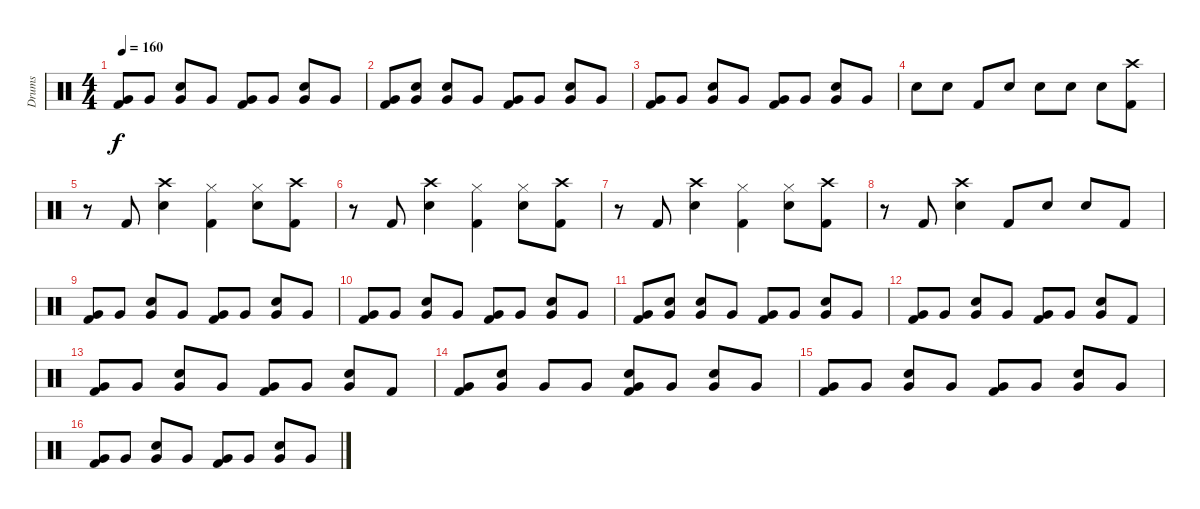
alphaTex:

\track ("Drums" "Drums") {instrument percussion}
\staff {score}
\articulation defaults
\ts (4 4)
\tempo 160
\clef neutral
\ks c
("Very Low Tom (hit)" "Kick (hit) 2").8{dy f} "Very Low Tom (hit)".8 ("Electric Snare (hit)" "Very Low Tom (hit)").8 "Very Low Tom (hit)".8 ("Very Low Tom (hit)" "Kick (hit) 2").8 "Very Low Tom (hit)".8 ("Electric Snare (hit)" "Very Low Tom (hit)").8 "Very Low Tom (hit)".8 |
("Very Low Tom (hit)" "Kick (hit) 2").8 ("Electric Snare (hit)" "Very Low Tom (hit)").8 ("Electric Snare (hit)" "Very Low Tom (hit)").8 "Very Low Tom (hit)".8 ("Very Low Tom (hit)" "Kick (hit) 2").8 "Very Low Tom (hit)".8 ("Electric Snare (hit)" "Very Low Tom (hit)").8 "Very Low Tom (hit)".8 |
("Very Low Tom (hit)" "Kick (hit) 2").8 "Very Low Tom (hit)".8 ("Electric Snare (hit)" "Very Low Tom (hit)").8 "Very Low Tom (hit)".8 ("Very Low Tom (hit)" "Kick (hit) 2").8 "Very Low Tom (hit)".8 ("Electric Snare (hit)" "Very Low Tom (hit)").8 "Very Low Tom (hit)".8 |
"Electric Snare (hit)".8 "Electric Snare (hit)".8 "Kick (hit) 2".8 "Electric Snare (hit)".8 "Electric Snare (hit)".8 "Electric Snare (hit)".8 "Electric Snare (hit)".8 ("Crash high (hit)" "Kick (hit) 2").8 |
r.8 "Kick (hit) 2".8 ("Crash high (hit)" "Electric Snare (hit)").4 ("Hi-Hat (closed)" "Kick (hit) 2").4 ("Hi-Hat (closed)" "Electric Snare (hit)").8 ("Crash high (hit)" "Kick (hit) 2").8 |
r.8 "Kick (hit) 2".8 ("Crash high (hit)" "Electric Snare (hit)").4 ("Hi-Hat (closed)" "Kick (hit) 2").4 ("Hi-Hat (closed)" "Electric Snare (hit)").8 ("Crash high (hit)" "Kick (hit) 2").8 |
r.8 "Kick (hit) 2".8 ("Crash high (hit)" "Electric Snare (hit)").4 ("Hi-Hat (closed)" "Kick (hit) 2").4 ("Hi-Hat (closed)" "Electric Snare (hit)").8 ("Crash high (hit)" "Kick (hit) 2").8 |
r.8 "Kick (hit) 2".8 ("Crash high (hit)" "Electric Snare (hit)").4 "Kick (hit) 2".8 "Electric Snare (hit)".8 "Electric Snare (hit)".8 "Kick (hit) 2".8 |
("Very Low Tom (hit)" "Kick (hit) 2").8 "Very Low Tom (hit)".8 ("Electric Snare (hit)" "Very Low Tom (hit)").8 "Very Low Tom (hit)".8 ("Very Low Tom (hit)" "Kick (hit) 2").8 "Very Low Tom (hit)".8 ("Electric Snare (hit)" "Very Low Tom (hit)").8 "Very Low Tom (hit)".8 |
("Very Low Tom (hit)" "Kick (hit) 2").8 "Very Low Tom (hit)".8 ("Electric Snare (hit)" "Very Low Tom (hit)").8 "Very Low Tom (hit)".8 ("Very Low Tom (hit)" "Kick (hit) 2").8 "Very Low Tom (hit)".8 ("Electric Snare (hit)" "Very Low Tom (hit)").8 "Very Low Tom (hit)".8 |
("Very Low Tom (hit)" "Kick (hit) 2").8 ("Electric Snare (hit)" "Very Low Tom (hit)").8 ("Electric Snare (hit)" "Very Low Tom (hit)").8 "Very Low Tom (hit)".8 ("Very Low Tom (hit)" "Kick (hit) 2").8 "Very Low Tom (hit)".8 ("Electric Snare (hit)" "Very Low Tom (hit)").8 "Very Low Tom (hit)".8 |
("Very Low Tom (hit)" "Kick (hit) 2").8 "Very Low Tom (hit)".8 ("Electric Snare (hit)" "Very Low Tom (hit)").8 "Very Low Tom (hit)".8 ("Very Low Tom (hit)" "Kick (hit) 2").8 "Very Low Tom (hit)".8 ("Electric Snare (hit)" "Very Low Tom (hit)").8 "Kick (hit) 2".8 |
("Very Low Tom (hit)" "Kick (hit) 2").8 "Very Low Tom (hit)".8 ("Electric Snare (hit)" "Very Low Tom (hit)").8 "Very Low Tom (hit)".8 ("Very Low Tom (hit)" "Kick (hit) 2").8 "Very Low Tom (hit)".8 ("Electric Snare (hit)" "Very Low Tom (hit)").8 "Kick (hit) 2".8 |
("Very Low Tom (hit)" "Kick (hit) 2").8 ("Electric Snare (hit)" "Very Low Tom (hit)").8 "Very Low Tom (hit)".8 "Very Low Tom (hit)".8 ("Electric Snare (hit)" "Very Low Tom (hit)" "Kick (hit) 2").8 "Very Low Tom (hit)".8 ("Electric Snare (hit)" "Very Low Tom (hit)").8 "Very Low Tom (hit)".8 |
("Very Low Tom (hit)" "Kick (hit) 2").8 "Very Low Tom (hit)".8 ("Electric Snare (hit)" "Very Low Tom (hit)").8 "Very Low Tom (hit)".8 ("Very Low Tom (hit)" "Kick (hit) 2").8 "Very Low Tom (hit)".8 ("Electric Snare (hit)" "Very Low Tom (hit)").8 "Very Low Tom (hit)".8 |
("Very Low Tom (hit)" "Kick (hit) 2").8 "Very Low Tom (hit)".8 ("Electric Snare (hit)" "Very Low Tom (hit)").8 "Very Low Tom (hit)".8 ("Very Low Tom (hit)" "Kick (hit) 2").8 "Very Low Tom (hit)".8 ("Electric Snare (hit)" "Very Low Tom (hit)").8 "Very Low Tom (hit)".8
